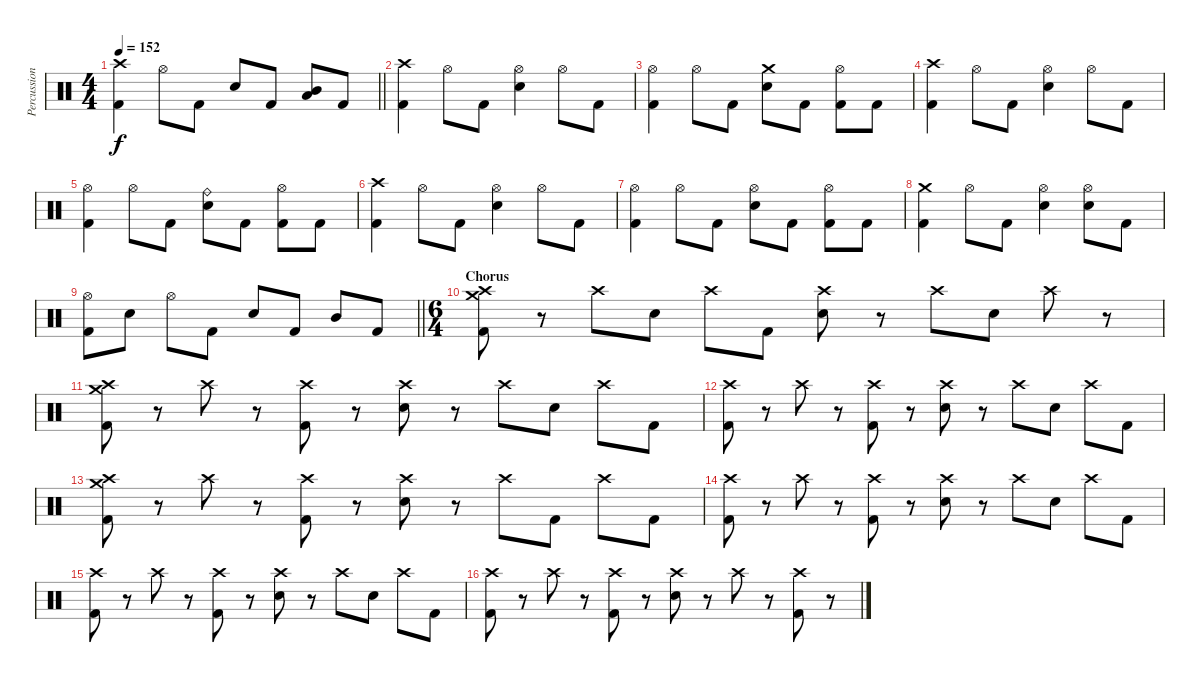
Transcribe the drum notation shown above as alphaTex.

\track ("Percussion" "Percussion") {instrument percussion}
\staff {score}
\articulation defaults
\ts (4 4)
\tempo 152
\clef neutral
\barLineRight lightlight
\ks c
("Crash high (hit)" "Kick (hit) 2").4{dy f} "Hi-Hat (open)".8 "Kick (hit) 2".8 "Electric Snare (hit)".8 "Kick (hit) 2".8 ("Mid Tom (hit)" "Low Tom (hit)").8 "Kick (hit) 2".8 |
("Crash high (hit)" "Kick (hit) 2").4 "Hi-Hat (open)".8 "Kick (hit) 2".8 ("Hi-Hat (open)" "Electric Snare (hit)").4 "Hi-Hat (open)".8 "Kick (hit) 2".8 |
("Hi-Hat (open)" "Kick (hit) 2").4 "Hi-Hat (open)".8 "Kick (hit) 2".8 ("Crash medium (hit)" "Electric Snare (hit)").8 "Kick (hit) 2".8 ("Hi-Hat (open)" "Kick (hit) 2").8 "Kick (hit) 2".8 |
("Crash high (hit)" "Kick (hit) 2").4 "Hi-Hat (open)".8 "Kick (hit) 2".8 ("Hi-Hat (open)" "Electric Snare (hit)").4 "Hi-Hat (open)".8 "Kick (hit) 2".8 |
("Hi-Hat (open)" "Kick (hit) 2").4 "Hi-Hat (open)".8 "Kick (hit) 2".8 ("Ride (bell)" "Electric Snare (hit)").8 "Kick (hit) 2".8 ("Hi-Hat (open)" "Kick (hit) 2").8 "Kick (hit) 2".8 |
("Crash high (hit)" "Kick (hit) 2").4 "Hi-Hat (open)".8 "Kick (hit) 2".8 ("Hi-Hat (open)" "Electric Snare (hit)").4 "Hi-Hat (open)".8 "Kick (hit) 2".8 |
("Hi-Hat (open)" "Kick (hit) 2").4 "Hi-Hat (open)".8 "Kick (hit) 2".8 ("Hi-Hat (open)" "Electric Snare (hit)").8 "Kick (hit) 2".8 ("Hi-Hat (open)" "Kick (hit) 2").8 "Kick (hit) 2".8 |
("Crash medium (hit)" "Kick (hit) 2").4 "Hi-Hat (open)".8 "Kick (hit) 2".8 ("Hi-Hat (open)" "Electric Snare (hit)").4 ("Hi-Hat (open)" "Electric Snare (hit)").8 "Kick (hit) 2".8 |
\barLineRight lightlight
("Hi-Hat (open)" "Kick (hit) 2").8 "Electric Snare (hit)".8 "Hi-Hat (open)".8 "Kick (hit) 2".8 "Electric Snare (hit)".8 "Kick (hit) 2".8 "Mid Tom (hit)".8 "Kick (hit) 2".8 |
\ts (6 4)
\section ("" "Chorus")
("Crash medium (hit)" "Crash high (hit)" "Kick (hit) 2").8 r.8 "Crash high (hit)".8 "Electric Snare (hit)".8 "Crash high (hit)".8 "Kick (hit) 2".8 ("Crash high (hit)" "Electric Snare (hit)").8 r.8 "Crash high (hit)".8 "Electric Snare (hit)".8 "Crash high (hit)".8 r.8 |
("Crash medium (hit)" "Crash high (hit)" "Kick (hit) 2").8 r.8 "Crash high (hit)".8 r.8 ("Crash high (hit)" "Kick (hit) 2").8 r.8 ("Crash high (hit)" "Electric Snare (hit)").8 r.8 "Crash high (hit)".8 "Electric Snare (hit)".8 "Crash high (hit)".8 "Kick (hit) 2".8 |
("Crash high (hit)" "Kick (hit) 2").8 r.8 "Crash high (hit)".8 r.8 ("Crash high (hit)" "Kick (hit) 2").8 r.8 ("Crash high (hit)" "Electric Snare (hit)").8 r.8 "Crash high (hit)".8 "Electric Snare (hit)".8 "Crash high (hit)".8 "Kick (hit) 2".8 |
("Crash medium (hit)" "Crash high (hit)" "Kick (hit) 2").8 r.8 "Crash high (hit)".8 r.8 ("Crash high (hit)" "Kick (hit) 2").8 r.8 ("Crash high (hit)" "Electric Snare (hit)").8 r.8 "Crash high (hit)".8 "Kick (hit) 2".8 "Crash high (hit)".8 "Kick (hit) 2".8 |
("Crash high (hit)" "Kick (hit) 2").8 r.8 "Crash high (hit)".8 r.8 ("Crash high (hit)" "Kick (hit) 2").8 r.8 ("Crash high (hit)" "Electric Snare (hit)").8 r.8 "Crash high (hit)".8 "Electric Snare (hit)".8 "Crash high (hit)".8 "Kick (hit) 2".8 |
("Crash high (hit)" "Kick (hit) 2").8 r.8 "Crash high (hit)".8 r.8 ("Crash high (hit)" "Kick (hit) 2").8 r.8 ("Crash high (hit)" "Electric Snare (hit)").8 r.8 "Crash high (hit)".8 "Electric Snare (hit)".8 "Crash high (hit)".8 "Kick (hit) 2".8 |
("Crash high (hit)" "Kick (hit) 2").8 r.8 "Crash high (hit)".8 r.8 ("Crash high (hit)" "Kick (hit) 2").8 r.8 ("Crash high (hit)" "Electric Snare (hit)").8 r.8 "Crash high (hit)".8 r.8 ("Crash high (hit)" "Kick (hit) 2").8 r.8
